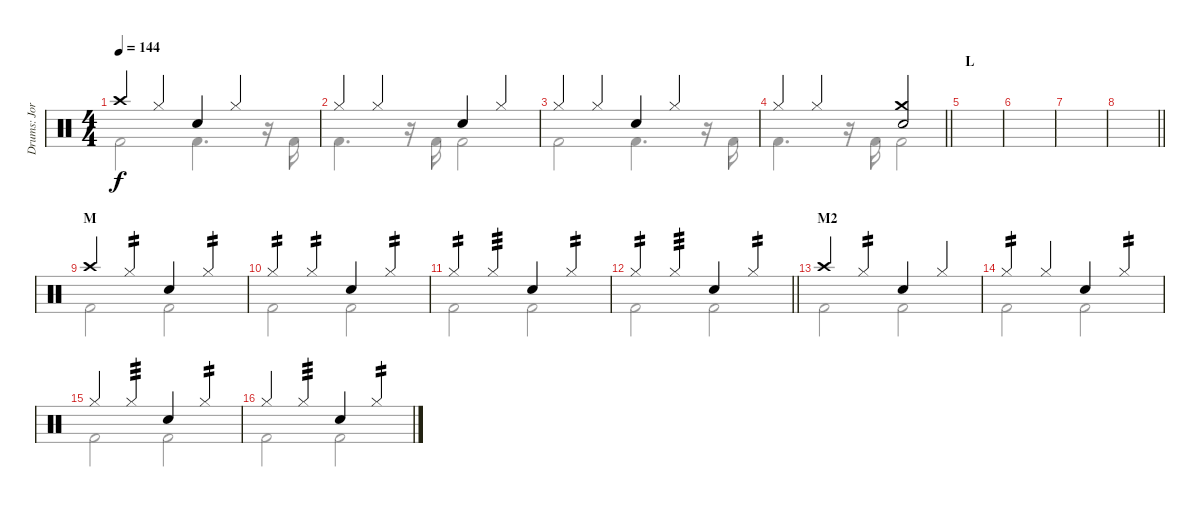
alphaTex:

\track ("Drums: Jorg" "Drums: Jor") {instrument percussion}
\staff {score}
\articulation defaults
\voice
\ts (4 4)
\tempo 144
\clef neutral
\ks c "Crash high (hit)".4{dy f} "Hi-Hat (closed)".4 "Snare (hit) 2".4 "Hi-Hat (closed)".4
|
"Hi-Hat (closed)".4 "Hi-Hat (closed)".4 "Snare (hit) 2".4 "Hi-Hat (closed)".4 |
"Hi-Hat (closed)".4 "Hi-Hat (closed)".4 "Snare (hit) 2".4 "Hi-Hat (closed)".4 |
\barLineRight lightlight "Hi-Hat (closed)".4 "Hi-Hat (closed)".4
("Crash medium (hit)" "Snare (hit) 2").2 |
\section ("" "L")
|
|
|
\barLineRight lightlight
|
\section ("" "M")
"Crash high (hit)".4 "Hi-Hat (closed)".4{tp 2} "Snare (hit) 2".4 "Hi-Hat (closed)".4{tp 2} |
"Hi-Hat (closed)".4{tp 2} "Hi-Hat (closed)".4{tp 2} "Snare (hit) 2".4 "Hi-Hat (closed)".4{tp 2} |
"Hi-Hat (closed)".4{tp 2} "Hi-Hat (closed)".4{tp 3} "Snare (hit) 2".4 "Hi-Hat (closed)".4{tp 2} |
\barLineRight lightlight "Hi-Hat (closed)".4{tp 2} "Hi-Hat (closed)".4{tp 3} "Snare (hit) 2".4 "Hi-Hat (closed)".4{tp 2}
|
\section ("" "M2")
"Crash high (hit)".4 "Hi-Hat (closed)".4{tp 2} "Snare (hit) 2".4 "Hi-Hat (closed)".4 |
"Hi-Hat (closed)".4{tp 2} "Hi-Hat (closed)".4 "Snare (hit) 2".4 "Hi-Hat (closed)".4{tp 2} |
"Hi-Hat (closed)".4 "Hi-Hat (closed)".4{tp 3} "Snare (hit) 2".4 "Hi-Hat (closed)".4{tp 2} |
"Hi-Hat (closed)".4 "Hi-Hat (closed)".4{tp 3} "Snare (hit) 2".4 "Hi-Hat (closed)".4{tp 2}
\voice
\clef neutral
\ottava regular
\simile none
\ks c "Kick (hit) 2".2{dy f} "Kick (hit) 2".4{d}
r.16 "Kick (hit) 2".16 |
"Kick (hit) 2".4{d} r.16 "Kick (hit) 2".16 "Kick (hit) 2".2 |
"Kick (hit) 2".2 "Kick (hit) 2".4{d} r.16 "Kick (hit) 2".16 |
\barLineRight lightlight "Kick (hit) 2".4{d}
r.16 "Kick (hit) 2".16 "Kick (hit) 2".2 |
|
|
|
\barLineRight lightlight
|
"Kick (hit) 2".2 "Kick (hit) 2".2 |
"Kick (hit) 2".2 "Kick (hit) 2".2 |
"Kick (hit) 2".2 "Kick (hit) 2".2 |
\barLineRight lightlight "Kick (hit) 2".2 "Kick (hit) 2".2
|
"Kick (hit) 2".2 "Kick (hit) 2".2 |
"Kick (hit) 2".2 "Kick (hit) 2".2 |
"Kick (hit) 2".2 "Kick (hit) 2".2 |
"Kick (hit) 2".2 "Kick (hit) 2".2
